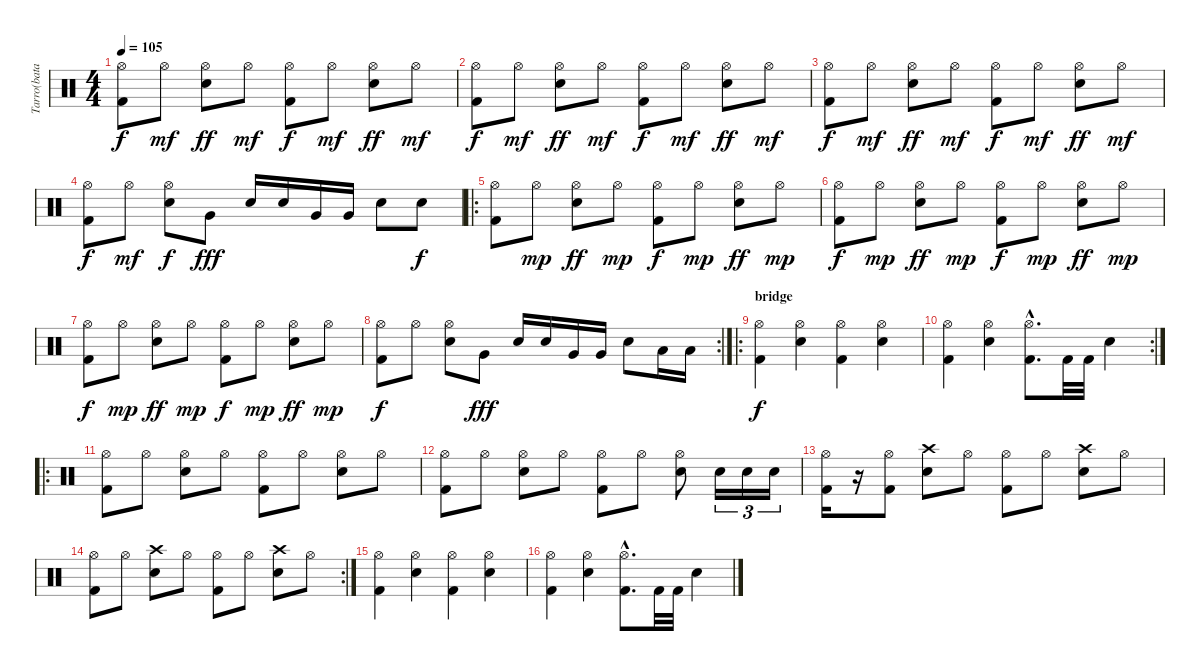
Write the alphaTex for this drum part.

\track ("Tarro(bataca)" "Tarro(bata") {instrument percussion}
\staff {score}
\articulation defaults
\ts (4 4)
\tempo 105
\clef neutral
\ks c
("Hi-Hat (open)" "Kick (hit) 2").8{dy f} "Hi-Hat (open)".8{dy mf} ("Hi-Hat (open)" "Snare (hit) 2").8{dy ff} "Hi-Hat (open)".8{dy mf} ("Hi-Hat (open)" "Kick (hit) 2").8{dy f} "Hi-Hat (open)".8{dy mf} ("Hi-Hat (open)" "Snare (hit) 2").8{dy ff} "Hi-Hat (open)".8{dy mf} |
("Hi-Hat (open)" "Kick (hit) 2").8{dy f} "Hi-Hat (open)".8{dy mf} ("Hi-Hat (open)" "Snare (hit) 2").8{dy ff} "Hi-Hat (open)".8{dy mf} ("Hi-Hat (open)" "Kick (hit) 2").8{dy f} "Hi-Hat (open)".8{dy mf} ("Hi-Hat (open)" "Snare (hit) 2").8{dy ff} "Hi-Hat (open)".8{dy mf} |
("Hi-Hat (open)" "Kick (hit) 2").8{dy f} "Hi-Hat (open)".8{dy mf} ("Hi-Hat (open)" "Snare (hit) 2").8{dy ff} "Hi-Hat (open)".8{dy mf} ("Hi-Hat (open)" "Kick (hit) 2").8{dy f} "Hi-Hat (open)".8{dy mf} ("Hi-Hat (open)" "Snare (hit) 2").8{dy ff} "Hi-Hat (open)".8{dy mf} |
("Hi-Hat (open)" "Kick (hit) 2").8{dy f} "Hi-Hat (open)".8{dy mf} ("Hi-Hat (open)" "Snare (hit) 2").8{dy f} "Very Low Tom (hit)".8{dy fff} "Snare (hit) 2".16 "Snare (hit) 2".16 "Very Low Tom (hit)".16 "Very Low Tom (hit)".16 "Snare (hit) 2".8 "Snare (hit) 2".8{dy f} |
\ro
("Hi-Hat (open)" "Kick (hit) 2").8 "Hi-Hat (open)".8{dy mp} ("Hi-Hat (open)" "Snare (hit) 2").8{dy ff} "Hi-Hat (open)".8{dy mp} ("Hi-Hat (open)" "Kick (hit) 2").8{dy f} "Hi-Hat (open)".8{dy mp} ("Hi-Hat (open)" "Snare (hit) 2").8{dy ff} "Hi-Hat (open)".8{dy mp} |
("Hi-Hat (open)" "Kick (hit) 2").8{dy f} "Hi-Hat (open)".8{dy mp} ("Hi-Hat (open)" "Snare (hit) 2").8{dy ff} "Hi-Hat (open)".8{dy mp} ("Hi-Hat (open)" "Kick (hit) 2").8{dy f} "Hi-Hat (open)".8{dy mp} ("Hi-Hat (open)" "Snare (hit) 2").8{dy ff} "Hi-Hat (open)".8{dy mp} |
("Hi-Hat (open)" "Kick (hit) 2").8{dy f} "Hi-Hat (open)".8{dy mp} ("Hi-Hat (open)" "Snare (hit) 2").8{dy ff} "Hi-Hat (open)".8{dy mp} ("Hi-Hat (open)" "Kick (hit) 2").8{dy f} "Hi-Hat (open)".8{dy mp} ("Hi-Hat (open)" "Snare (hit) 2").8{dy ff} "Hi-Hat (open)".8{dy mp} |
\rc 2
("Hi-Hat (open)" "Kick (hit) 2").8{dy f} "Hi-Hat (open)".8 ("Hi-Hat (open)" "Snare (hit) 2").8 "Very Low Tom (hit)".8{dy fff} "Snare (hit) 2".16 "Snare (hit) 2".16 "Very Low Tom (hit)".16 "Very Low Tom (hit)".16 "Snare (hit) 2".8 "Low Floor Tom (hit)".16 "Low Floor Tom (hit)".16 |
\ro
\section ("" "bridge")
("Hi-Hat (open)" "Kick (hit) 2").4{dy f} ("Hi-Hat (open)" "Snare (hit) 2").4 ("Hi-Hat (open)" "Kick (hit) 2").4 ("Hi-Hat (open)" "Snare (hit) 2").4 |
\rc 2
("Hi-Hat (open)" "Kick (hit) 2").4 ("Hi-Hat (open)" "Snare (hit) 2").4 ("Hi-Hat (open)"{hac} "Kick (hit) 2"{hac}).8{d} "Kick (hit) 2".32 "Kick (hit) 2".32 "Snare (hit) 2".4 |
\ro
("Hi-Hat (open)" "Kick (hit) 2").8 "Hi-Hat (open)".8 ("Hi-Hat (open)" "Snare (hit) 2").8 "Hi-Hat (open)".8 ("Hi-Hat (open)" "Kick (hit) 2").8 "Hi-Hat (open)".8 ("Hi-Hat (open)" "Snare (hit) 2").8 "Hi-Hat (open)".8 |
("Hi-Hat (open)" "Kick (hit) 2").8 "Hi-Hat (open)".8 ("Hi-Hat (open)" "Snare (hit) 2").8 "Hi-Hat (open)".8 ("Hi-Hat (open)" "Kick (hit) 2").8 "Hi-Hat (open)".8 ("Hi-Hat (open)" "Snare (hit) 2").8 "Snare (hit) 2".16{tu (3 2)} "Snare (hit) 2".16{tu (3 2)} "Snare (hit) 2".16{tu (3 2)} |
("Hi-Hat (open)" "Kick (hit) 2").16 r.16 ("Hi-Hat (open)" "Kick (hit) 2").8 ("Crash high (hit)" "Snare (hit) 2").8 "Hi-Hat (open)".8 ("Hi-Hat (open)" "Kick (hit) 2").8 "Hi-Hat (open)".8 ("Crash high (hit)" "Snare (hit) 2").8 "Hi-Hat (open)".8 |
\rc 2
("Hi-Hat (open)" "Kick (hit) 2").8 "Hi-Hat (open)".8 ("Crash high (hit)" "Snare (hit) 2").8 "Hi-Hat (open)".8 ("Hi-Hat (open)" "Kick (hit) 2").8 "Hi-Hat (open)".8 ("Crash high (hit)" "Snare (hit) 2").8 "Hi-Hat (open)".8 |
("Hi-Hat (open)" "Kick (hit) 2").4 ("Hi-Hat (open)" "Snare (hit) 2").4 ("Hi-Hat (open)" "Kick (hit) 2").4 ("Hi-Hat (open)" "Snare (hit) 2").4 |
("Hi-Hat (open)" "Kick (hit) 2").4 ("Hi-Hat (open)" "Snare (hit) 2").4 ("Hi-Hat (open)"{hac} "Kick (hit) 2"{hac}).8{d} "Kick (hit) 2".32 "Kick (hit) 2".32 "Snare (hit) 2".4
